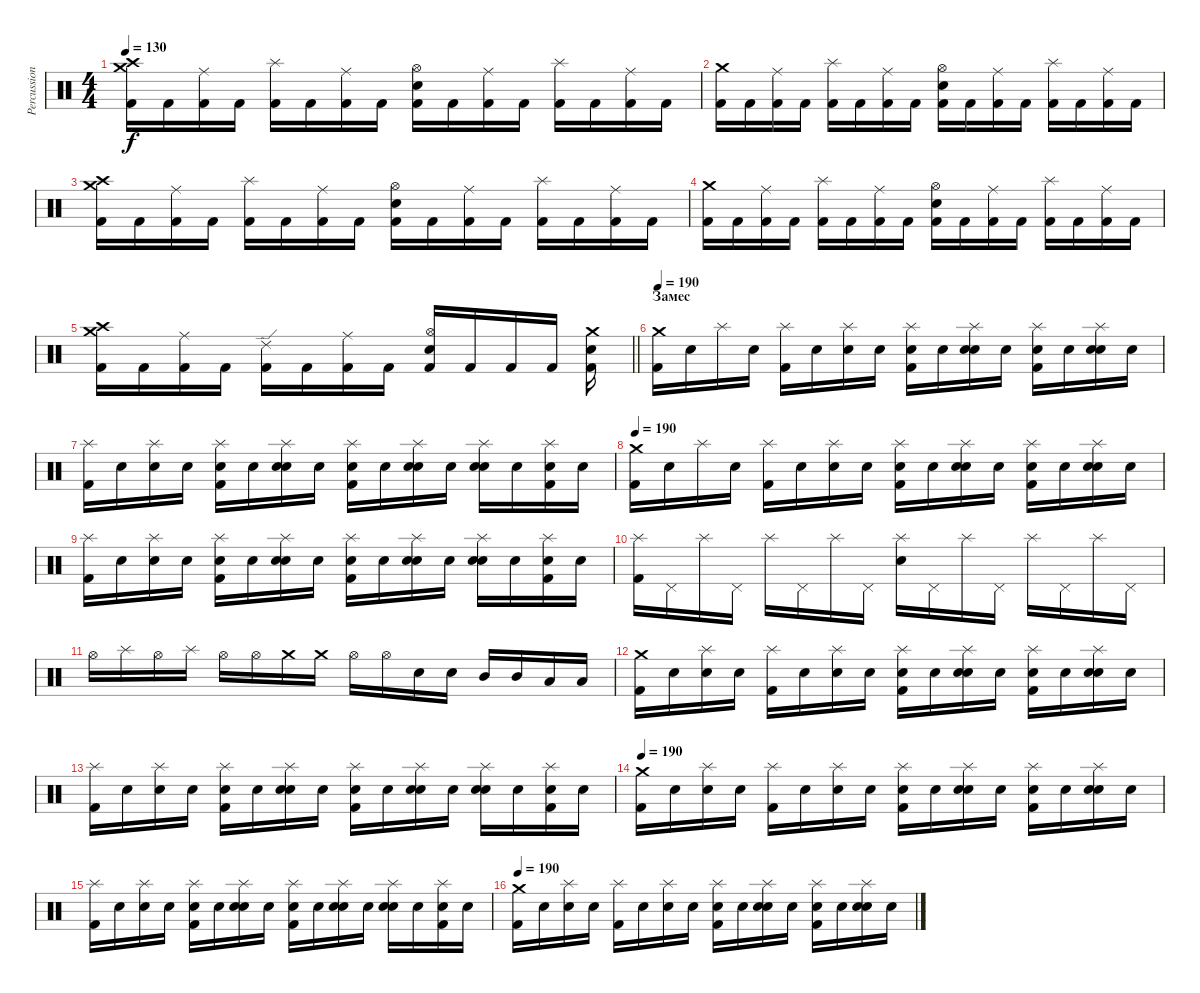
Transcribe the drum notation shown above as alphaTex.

\track ("Percussion" "Percussion") {instrument percussion}
\staff {score}
\articulation defaults
\ts (4 4)
\tempo 130
\clef neutral
\ks c
("Crash medium (hit)" "Kick (hit) 2" "Crash high (hit)").16{dy f} "Kick (hit) 2".16 ("Kick (hit) 2" "Ride (middle)").16 "Kick (hit) 2".16 ("Kick (hit) 2" "Splash (hit)").16 "Kick (hit) 2".16 ("Kick (hit) 2" "Ride (middle)").16 "Kick (hit) 2".16 ("Kick (hit) 2" "Hi-Hat (open)" "Electric Snare (hit)").16 "Kick (hit) 2".16 ("Kick (hit) 2" "Ride (middle)").16 "Kick (hit) 2".16 ("Kick (hit) 2" "Splash (hit)").16 "Kick (hit) 2".16 ("Kick (hit) 2" "Ride (middle)").16 "Kick (hit) 2".16 |
("Crash medium (hit)" "Kick (hit) 2").16 "Kick (hit) 2".16 ("Kick (hit) 2" "Ride (middle)").16 "Kick (hit) 2".16 ("Kick (hit) 2" "Splash (hit)").16 "Kick (hit) 2".16 ("Kick (hit) 2" "Ride (middle)").16 "Kick (hit) 2".16 ("Kick (hit) 2" "Hi-Hat (open)" "Electric Snare (hit)").16 "Kick (hit) 2".16 ("Kick (hit) 2" "Ride (middle)").16 "Kick (hit) 2".16 ("Kick (hit) 2" "Splash (hit)").16 "Kick (hit) 2".16 ("Kick (hit) 2" "Ride (middle)").16 "Kick (hit) 2".16 |
("Crash medium (hit)" "Kick (hit) 2" "Crash high (hit)").16 "Kick (hit) 2".16 ("Kick (hit) 2" "Ride (middle)").16 "Kick (hit) 2".16 ("Kick (hit) 2" "Splash (hit)").16 "Kick (hit) 2".16 ("Kick (hit) 2" "Ride (middle)").16 "Kick (hit) 2".16 ("Kick (hit) 2" "Hi-Hat (open)" "Electric Snare (hit)").16 "Kick (hit) 2".16 ("Kick (hit) 2" "Ride (middle)").16 "Kick (hit) 2".16 ("Kick (hit) 2" "Splash (hit)").16 "Kick (hit) 2".16 ("Kick (hit) 2" "Ride (middle)").16 "Kick (hit) 2".16 |
("Crash medium (hit)" "Kick (hit) 2").16 "Kick (hit) 2".16 ("Kick (hit) 2" "Ride (middle)").16 "Kick (hit) 2".16 ("Kick (hit) 2" "Splash (hit)").16 "Kick (hit) 2".16 ("Kick (hit) 2" "Ride (middle)").16 "Kick (hit) 2".16 ("Kick (hit) 2" "Hi-Hat (open)" "Electric Snare (hit)").16 "Kick (hit) 2".16 ("Kick (hit) 2" "Ride (middle)").16 "Kick (hit) 2".16 ("Kick (hit) 2" "Splash (hit)").16 "Kick (hit) 2".16 ("Kick (hit) 2" "Ride (middle)").16 "Kick (hit) 2".16 |
\barLineRight lightlight
("Crash medium (hit)" "Kick (hit) 2" "Crash high (hit)").16 "Kick (hit) 2".16 ("Kick (hit) 2" "Ride (middle)").16 "Kick (hit) 2".16 ("Kick (hit) 2" "Ride (edge) 2").16 "Kick (hit) 2".16 ("Kick (hit) 2" "Ride (middle)").16 "Kick (hit) 2".16 ("Kick (hit) 2" "Hi-Hat (open)" "Electric Snare (hit)").16 "Kick (hit) 2".16 "Kick (hit) 2".16 "Kick (hit) 2".16 ("Kick (hit) 2" "Electric Snare (hit)" "Crash medium (hit)").16 |
\section ("" "Замес")
\tempo 190
("Crash medium (hit)" "Kick (hit) 2").16 "Snare (hit)".16 "Splash (hit)".16 "Snare (hit)".16 ("Splash (hit)" "Kick (hit) 2").16 "Snare (hit)".16 ("Splash (hit)" "Electric Snare (hit)").16 "Snare (hit)".16 ("Splash (hit)" "Kick (hit) 2" "Snare (hit)").16 "Snare (hit)".16 ("Splash (hit)" "Electric Snare (hit)" "Snare (hit)").16 "Snare (hit)".16 ("Splash (hit)" "Kick (hit) 2" "Snare (hit)").16 "Snare (hit)".16 ("Splash (hit)" "Electric Snare (hit)" "Snare (hit)").16 "Snare (hit)".16 |
("Splash (hit)" "Kick (hit) 2").16 "Snare (hit)".16 ("Splash (hit)" "Electric Snare (hit)").16 "Snare (hit)".16 ("Splash (hit)" "Kick (hit) 2" "Snare (hit)").16 "Snare (hit)".16 ("Splash (hit)" "Electric Snare (hit)" "Snare (hit)").16 "Snare (hit)".16 ("Splash (hit)" "Kick (hit) 2" "Snare (hit)").16 "Snare (hit)".16 ("Splash (hit)" "Electric Snare (hit)" "Snare (hit)").16 "Snare (hit)".16 ("Splash (hit)" "Electric Snare (hit)" "Snare (hit)").16 "Snare (hit)".16 ("Splash (hit)" "Kick (hit) 2" "Snare (hit)").16 "Snare (hit)".16 |
\tempo 190
("Crash medium (hit)" "Kick (hit) 2").16 "Snare (hit)".16 "Splash (hit)".16 "Snare (hit)".16 ("Splash (hit)" "Kick (hit) 2").16 "Snare (hit)".16 ("Splash (hit)" "Electric Snare (hit)").16 "Snare (hit)".16 ("Splash (hit)" "Kick (hit) 2" "Snare (hit)").16 "Snare (hit)".16 ("Splash (hit)" "Electric Snare (hit)" "Snare (hit)").16 "Snare (hit)".16 ("Splash (hit)" "Kick (hit) 2" "Snare (hit)").16 "Snare (hit)".16 ("Splash (hit)" "Electric Snare (hit)" "Snare (hit)").16 "Snare (hit)".16 |
("Splash (hit)" "Kick (hit) 2").16 "Snare (hit)".16 ("Splash (hit)" "Electric Snare (hit)").16 "Snare (hit)".16 ("Splash (hit)" "Kick (hit) 2" "Snare (hit)").16 "Snare (hit)".16 ("Splash (hit)" "Electric Snare (hit)" "Snare (hit)").16 "Snare (hit)".16 ("Splash (hit)" "Kick (hit) 2" "Snare (hit)").16 "Snare (hit)".16 ("Splash (hit)" "Electric Snare (hit)" "Snare (hit)").16 "Snare (hit)".16 ("Splash (hit)" "Electric Snare (hit)" "Snare (hit)").16 "Snare (hit)".16 ("Splash (hit)" "Kick (hit) 2" "Snare (hit)").16 "Snare (hit)".16 |
("Splash (hit)" "Kick (hit) 2").16 "Pedal Hi-Hat (hit)".16 "Splash (hit)".16 "Pedal Hi-Hat (hit)".16 "Splash (hit)".16 "Pedal Hi-Hat (hit)".16 "Splash (hit)".16 "Pedal Hi-Hat (hit)".16 ("Splash (hit)" "Electric Snare (hit)").16 "Pedal Hi-Hat (hit)".16 "Splash (hit)".16 "Pedal Hi-Hat (hit)".16 "Splash (hit)".16 "Pedal Hi-Hat (hit)".16 "Splash (hit)".16 "Pedal Hi-Hat (hit)".16 |
"Hi-Hat (open)".16 "Splash (hit)".16 "Hi-Hat (open)".16 "Splash (hit)".16 "Hi-Hat (open)".16 "Hi-Hat (open)".16 "Crash medium (hit)".16 "Crash medium (hit)".16 "Hi-Hat (open)".16 "Hi-Hat (open)".16 "Electric Snare (hit)".16 "Electric Snare (hit)".16 "Mid Tom (hit)".16 "Mid Tom (hit)".16 "Low Tom (hit)".16 "Low Tom (hit)".16 |
("Crash medium (hit)" "Kick (hit) 2").16 "Snare (hit)".16 ("Electric Snare (hit)" "Splash (hit)").16 "Snare (hit)".16 ("Splash (hit)" "Kick (hit) 2").16 "Snare (hit)".16 ("Splash (hit)" "Electric Snare (hit)").16 "Snare (hit)".16 ("Splash (hit)" "Kick (hit) 2" "Snare (hit)").16 "Snare (hit)".16 ("Splash (hit)" "Electric Snare (hit)" "Snare (hit)").16 "Snare (hit)".16 ("Splash (hit)" "Kick (hit) 2" "Snare (hit)").16 "Snare (hit)".16 ("Splash (hit)" "Electric Snare (hit)" "Snare (hit)").16 "Snare (hit)".16 |
("Splash (hit)" "Kick (hit) 2").16 "Snare (hit)".16 ("Splash (hit)" "Electric Snare (hit)").16 "Snare (hit)".16 ("Splash (hit)" "Kick (hit) 2" "Snare (hit)").16 "Snare (hit)".16 ("Splash (hit)" "Electric Snare (hit)" "Snare (hit)").16 "Snare (hit)".16 ("Splash (hit)" "Kick (hit) 2" "Snare (hit)").16 "Snare (hit)".16 ("Splash (hit)" "Electric Snare (hit)" "Snare (hit)").16 "Snare (hit)".16 ("Splash (hit)" "Electric Snare (hit)" "Snare (hit)").16 "Snare (hit)".16 ("Splash (hit)" "Kick (hit) 2" "Snare (hit)").16 "Snare (hit)".16 |
\tempo 190
("Crash medium (hit)" "Kick (hit) 2").16 "Snare (hit)".16 ("Electric Snare (hit)" "Splash (hit)").16 "Snare (hit)".16 ("Splash (hit)" "Kick (hit) 2").16 "Snare (hit)".16 ("Splash (hit)" "Electric Snare (hit)").16 "Snare (hit)".16 ("Splash (hit)" "Kick (hit) 2" "Snare (hit)").16 "Snare (hit)".16 ("Splash (hit)" "Electric Snare (hit)" "Snare (hit)").16 "Snare (hit)".16 ("Splash (hit)" "Kick (hit) 2" "Snare (hit)").16 "Snare (hit)".16 ("Splash (hit)" "Electric Snare (hit)" "Snare (hit)").16 "Snare (hit)".16 |
("Splash (hit)" "Kick (hit) 2").16 "Snare (hit)".16 ("Splash (hit)" "Electric Snare (hit)").16 "Snare (hit)".16 ("Splash (hit)" "Kick (hit) 2" "Snare (hit)").16 "Snare (hit)".16 ("Splash (hit)" "Electric Snare (hit)" "Snare (hit)").16 "Snare (hit)".16 ("Splash (hit)" "Kick (hit) 2" "Snare (hit)").16 "Snare (hit)".16 ("Splash (hit)" "Electric Snare (hit)" "Snare (hit)").16 "Snare (hit)".16 ("Splash (hit)" "Electric Snare (hit)" "Snare (hit)").16 "Snare (hit)".16 ("Splash (hit)" "Kick (hit) 2" "Snare (hit)").16 "Snare (hit)".16 |
\tempo 190
("Crash medium (hit)" "Kick (hit) 2").16 "Snare (hit)".16 ("Electric Snare (hit)" "Splash (hit)").16 "Snare (hit)".16 ("Splash (hit)" "Kick (hit) 2").16 "Snare (hit)".16 ("Splash (hit)" "Electric Snare (hit)").16 "Snare (hit)".16 ("Splash (hit)" "Kick (hit) 2" "Snare (hit)").16 "Snare (hit)".16 ("Splash (hit)" "Electric Snare (hit)" "Snare (hit)").16 "Snare (hit)".16 ("Splash (hit)" "Kick (hit) 2" "Snare (hit)").16 "Snare (hit)".16 ("Splash (hit)" "Electric Snare (hit)" "Snare (hit)").16 "Snare (hit)".16
